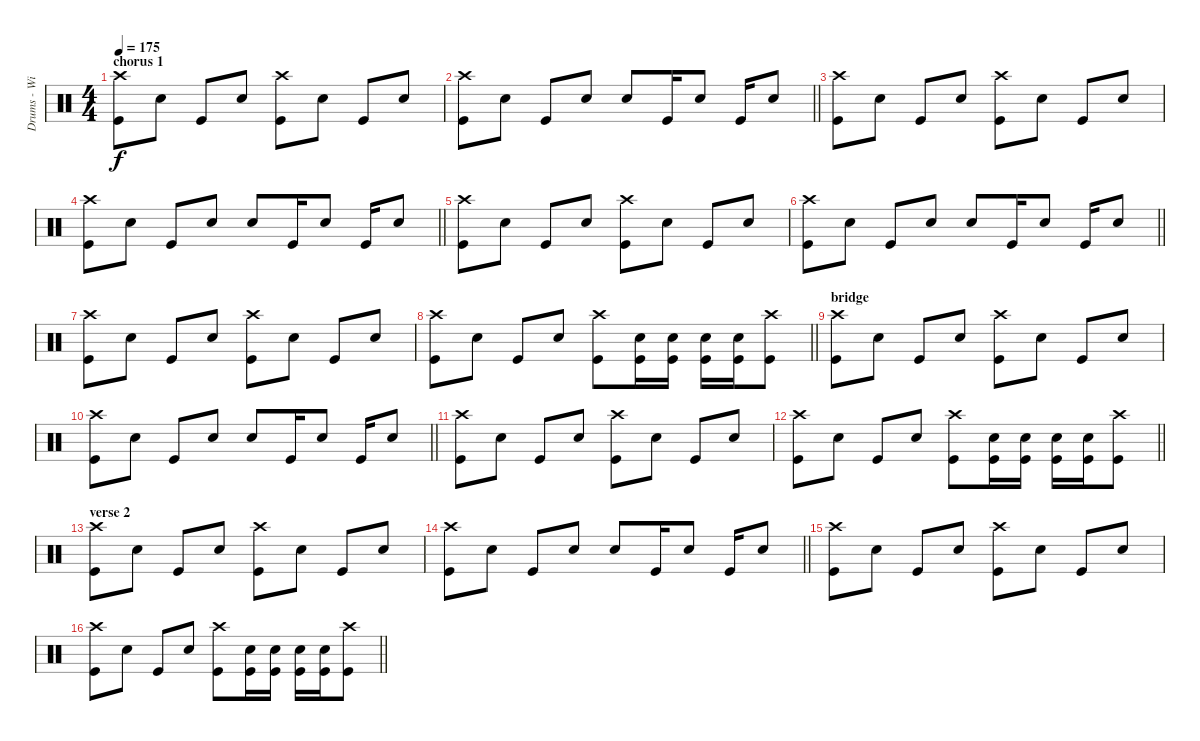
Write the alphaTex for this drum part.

\track ("Drums - Willie Buchan" "Drums - Wi") {instrument percussion}
\staff {score}
\articulation defaults
\ts (4 4)
\section ("" "chorus 1")
\tempo 175
\clef neutral
\ks c
("Crash high (hit)" "Kick (hit)").8{dy f} "Snare (hit) 2".8 "Kick (hit)".8 "Snare (hit) 2".8 ("Crash high (hit)" "Kick (hit)").8 "Snare (hit) 2".8 "Kick (hit)".8 "Snare (hit) 2".8 |
\barLineRight lightlight
("Crash high (hit)" "Kick (hit)").8 "Snare (hit) 2".8 "Kick (hit)".8 "Snare (hit) 2".8 "Snare (hit) 2".8 "Kick (hit)".16 "Snare (hit) 2".8 "Kick (hit)".16 "Snare (hit) 2".8 |
("Crash high (hit)" "Kick (hit)").8 "Snare (hit) 2".8 "Kick (hit)".8 "Snare (hit) 2".8 ("Crash high (hit)" "Kick (hit)").8 "Snare (hit) 2".8 "Kick (hit)".8 "Snare (hit) 2".8 |
\barLineRight lightlight
("Crash high (hit)" "Kick (hit)").8 "Snare (hit) 2".8 "Kick (hit)".8 "Snare (hit) 2".8 "Snare (hit) 2".8 "Kick (hit)".16 "Snare (hit) 2".8 "Kick (hit)".16 "Snare (hit) 2".8 |
("Crash high (hit)" "Kick (hit)").8 "Snare (hit) 2".8 "Kick (hit)".8 "Snare (hit) 2".8 ("Crash high (hit)" "Kick (hit)").8 "Snare (hit) 2".8 "Kick (hit)".8 "Snare (hit) 2".8 |
\barLineRight lightlight
("Crash high (hit)" "Kick (hit)").8 "Snare (hit) 2".8 "Kick (hit)".8 "Snare (hit) 2".8 "Snare (hit) 2".8 "Kick (hit)".16 "Snare (hit) 2".8 "Kick (hit)".16 "Snare (hit) 2".8 |
("Crash high (hit)" "Kick (hit)").8 "Snare (hit) 2".8 "Kick (hit)".8 "Snare (hit) 2".8 ("Crash high (hit)" "Kick (hit)").8 "Snare (hit) 2".8 "Kick (hit)".8 "Snare (hit) 2".8 |
\barLineRight lightlight
("Crash high (hit)" "Kick (hit)").8 "Snare (hit) 2".8 "Kick (hit)".8 "Snare (hit) 2".8 ("Crash high (hit)" "Kick (hit)").8 ("Snare (hit) 2" "Kick (hit)").16 ("Snare (hit) 2" "Kick (hit)").16 ("Snare (hit) 2" "Kick (hit)").16 ("Snare (hit) 2" "Kick (hit)").16 ("Crash high (hit)" "Kick (hit)").8 |
\section ("" "bridge")
("Crash high (hit)" "Kick (hit)").8 "Snare (hit) 2".8 "Kick (hit)".8 "Snare (hit) 2".8 ("Crash high (hit)" "Kick (hit)").8 "Snare (hit) 2".8 "Kick (hit)".8 "Snare (hit) 2".8 |
\barLineRight lightlight
("Crash high (hit)" "Kick (hit)").8 "Snare (hit) 2".8 "Kick (hit)".8 "Snare (hit) 2".8 "Snare (hit) 2".8 "Kick (hit)".16 "Snare (hit) 2".8 "Kick (hit)".16 "Snare (hit) 2".8 |
("Crash high (hit)" "Kick (hit)").8 "Snare (hit) 2".8 "Kick (hit)".8 "Snare (hit) 2".8 ("Crash high (hit)" "Kick (hit)").8 "Snare (hit) 2".8 "Kick (hit)".8 "Snare (hit) 2".8 |
\barLineRight lightlight
("Crash high (hit)" "Kick (hit)").8 "Snare (hit) 2".8 "Kick (hit)".8 "Snare (hit) 2".8 ("Crash high (hit)" "Kick (hit)").8 ("Snare (hit) 2" "Kick (hit)").16 ("Snare (hit) 2" "Kick (hit)").16 ("Snare (hit) 2" "Kick (hit)").16 ("Snare (hit) 2" "Kick (hit)").16 ("Crash high (hit)" "Kick (hit)").8 |
\section ("" "verse 2")
("Crash high (hit)" "Kick (hit)").8 "Snare (hit) 2".8 "Kick (hit)".8 "Snare (hit) 2".8 ("Crash high (hit)" "Kick (hit)").8 "Snare (hit) 2".8 "Kick (hit)".8 "Snare (hit) 2".8 |
\barLineRight lightlight
("Crash high (hit)" "Kick (hit)").8 "Snare (hit) 2".8 "Kick (hit)".8 "Snare (hit) 2".8 "Snare (hit) 2".8 "Kick (hit)".16 "Snare (hit) 2".8 "Kick (hit)".16 "Snare (hit) 2".8 |
("Crash high (hit)" "Kick (hit)").8 "Snare (hit) 2".8 "Kick (hit)".8 "Snare (hit) 2".8 ("Crash high (hit)" "Kick (hit)").8 "Snare (hit) 2".8 "Kick (hit)".8 "Snare (hit) 2".8 |
\barLineRight lightlight
("Crash high (hit)" "Kick (hit)").8 "Snare (hit) 2".8 "Kick (hit)".8 "Snare (hit) 2".8 ("Crash high (hit)" "Kick (hit)").8 ("Snare (hit) 2" "Kick (hit)").16 ("Snare (hit) 2" "Kick (hit)").16 ("Snare (hit) 2" "Kick (hit)").16 ("Snare (hit) 2" "Kick (hit)").16 ("Crash high (hit)" "Kick (hit)").8
